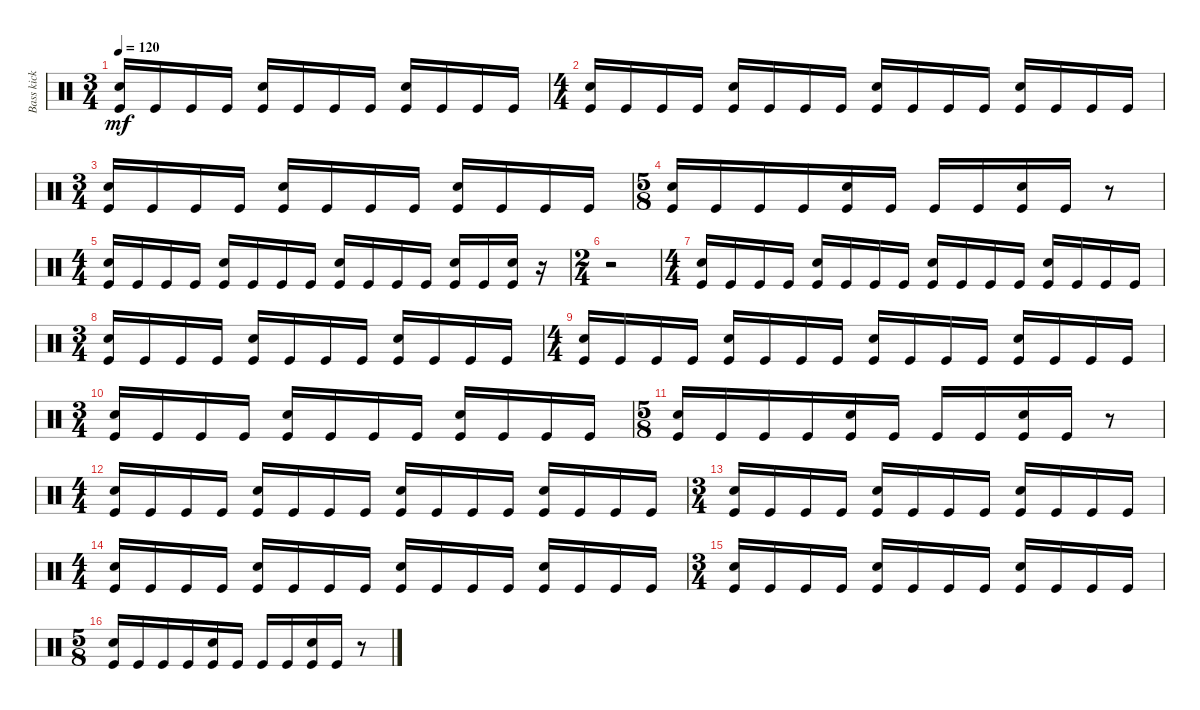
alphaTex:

\track ("Bass kick" "Bass kick") {instrument percussion}
\staff {score}
\articulation defaults
\ts (3 4)
\tempo 120
\clef neutral
\ks c
("Kick (hit)" "Snare (hit) 2").16{dy mf} "Kick (hit)".16 "Kick (hit)".16 "Kick (hit)".16 ("Kick (hit)" "Snare (hit) 2").16 "Kick (hit)".16 "Kick (hit)".16 "Kick (hit)".16 ("Kick (hit)" "Snare (hit) 2").16 "Kick (hit)".16 "Kick (hit)".16 "Kick (hit)".16 |
\ts (4 4)
("Kick (hit)" "Snare (hit) 2").16 "Kick (hit)".16 "Kick (hit)".16 "Kick (hit)".16 ("Kick (hit)" "Snare (hit) 2").16 "Kick (hit)".16 "Kick (hit)".16 "Kick (hit)".16 ("Kick (hit)" "Snare (hit) 2").16 "Kick (hit)".16 "Kick (hit)".16 "Kick (hit)".16 ("Kick (hit)" "Snare (hit) 2").16 "Kick (hit)".16 "Kick (hit)".16 "Kick (hit)".16 |
\ts (3 4)
("Kick (hit)" "Snare (hit) 2").16 "Kick (hit)".16 "Kick (hit)".16 "Kick (hit)".16 ("Kick (hit)" "Snare (hit) 2").16 "Kick (hit)".16 "Kick (hit)".16 "Kick (hit)".16 ("Kick (hit)" "Snare (hit) 2").16 "Kick (hit)".16 "Kick (hit)".16 "Kick (hit)".16 |
\ts (5 8)
("Kick (hit)" "Snare (hit) 2").16 "Kick (hit)".16 "Kick (hit)".16 "Kick (hit)".16 ("Kick (hit)" "Snare (hit) 2").16 "Kick (hit)".16 "Kick (hit)".16 "Kick (hit)".16 ("Kick (hit)" "Snare (hit) 2").16 "Kick (hit)".16 r.8 |
\ts (4 4)
("Kick (hit)" "Snare (hit) 2").16 "Kick (hit)".16 "Kick (hit)".16 "Kick (hit)".16 ("Kick (hit)" "Snare (hit) 2").16 "Kick (hit)".16 "Kick (hit)".16 "Kick (hit)".16 ("Kick (hit)" "Snare (hit) 2").16 "Kick (hit)".16 "Kick (hit)".16 "Kick (hit)".16 ("Kick (hit)" "Snare (hit) 2").16 "Kick (hit)".16 ("Kick (hit)" "Snare (hit) 2").16 r.16 |
\ts (2 4)
r.2 |
\ts (4 4)
("Kick (hit)" "Snare (hit) 2").16 "Kick (hit)".16 "Kick (hit)".16 "Kick (hit)".16 ("Kick (hit)" "Snare (hit) 2").16 "Kick (hit)".16 "Kick (hit)".16 "Kick (hit)".16 ("Kick (hit)" "Snare (hit) 2").16 "Kick (hit)".16 "Kick (hit)".16 "Kick (hit)".16 ("Kick (hit)" "Snare (hit) 2").16 "Kick (hit)".16 "Kick (hit)".16 "Kick (hit)".16 |
\ts (3 4)
("Kick (hit)" "Snare (hit) 2").16 "Kick (hit)".16 "Kick (hit)".16 "Kick (hit)".16 ("Kick (hit)" "Snare (hit) 2").16 "Kick (hit)".16 "Kick (hit)".16 "Kick (hit)".16 ("Kick (hit)" "Snare (hit) 2").16 "Kick (hit)".16 "Kick (hit)".16 "Kick (hit)".16 |
\ts (4 4)
("Kick (hit)" "Snare (hit) 2").16 "Kick (hit)".16 "Kick (hit)".16 "Kick (hit)".16 ("Kick (hit)" "Snare (hit) 2").16 "Kick (hit)".16 "Kick (hit)".16 "Kick (hit)".16 ("Kick (hit)" "Snare (hit) 2").16 "Kick (hit)".16 "Kick (hit)".16 "Kick (hit)".16 ("Kick (hit)" "Snare (hit) 2").16 "Kick (hit)".16 "Kick (hit)".16 "Kick (hit)".16 |
\ts (3 4)
("Kick (hit)" "Snare (hit) 2").16 "Kick (hit)".16 "Kick (hit)".16 "Kick (hit)".16 ("Kick (hit)" "Snare (hit) 2").16 "Kick (hit)".16 "Kick (hit)".16 "Kick (hit)".16 ("Kick (hit)" "Snare (hit) 2").16 "Kick (hit)".16 "Kick (hit)".16 "Kick (hit)".16 |
\ts (5 8)
("Kick (hit)" "Snare (hit) 2").16 "Kick (hit)".16 "Kick (hit)".16 "Kick (hit)".16 ("Kick (hit)" "Snare (hit) 2").16 "Kick (hit)".16 "Kick (hit)".16 "Kick (hit)".16 ("Kick (hit)" "Snare (hit) 2").16 "Kick (hit)".16 r.8 |
\ts (4 4)
("Kick (hit)" "Snare (hit) 2").16 "Kick (hit)".16 "Kick (hit)".16 "Kick (hit)".16 ("Kick (hit)" "Snare (hit) 2").16 "Kick (hit)".16 "Kick (hit)".16 "Kick (hit)".16 ("Kick (hit)" "Snare (hit) 2").16 "Kick (hit)".16 "Kick (hit)".16 "Kick (hit)".16 ("Kick (hit)" "Snare (hit) 2").16 "Kick (hit)".16 "Kick (hit)".16 "Kick (hit)".16 |
\ts (3 4)
("Kick (hit)" "Snare (hit) 2").16 "Kick (hit)".16 "Kick (hit)".16 "Kick (hit)".16 ("Kick (hit)" "Snare (hit) 2").16 "Kick (hit)".16 "Kick (hit)".16 "Kick (hit)".16 ("Kick (hit)" "Snare (hit) 2").16 "Kick (hit)".16 "Kick (hit)".16 "Kick (hit)".16 |
\ts (4 4)
("Kick (hit)" "Snare (hit) 2").16 "Kick (hit)".16 "Kick (hit)".16 "Kick (hit)".16 ("Kick (hit)" "Snare (hit) 2").16 "Kick (hit)".16 "Kick (hit)".16 "Kick (hit)".16 ("Kick (hit)" "Snare (hit) 2").16 "Kick (hit)".16 "Kick (hit)".16 "Kick (hit)".16 ("Kick (hit)" "Snare (hit) 2").16 "Kick (hit)".16 "Kick (hit)".16 "Kick (hit)".16 |
\ts (3 4)
("Kick (hit)" "Snare (hit) 2").16 "Kick (hit)".16 "Kick (hit)".16 "Kick (hit)".16 ("Kick (hit)" "Snare (hit) 2").16 "Kick (hit)".16 "Kick (hit)".16 "Kick (hit)".16 ("Kick (hit)" "Snare (hit) 2").16 "Kick (hit)".16 "Kick (hit)".16 "Kick (hit)".16 |
\ts (5 8)
("Kick (hit)" "Snare (hit) 2").16 "Kick (hit)".16 "Kick (hit)".16 "Kick (hit)".16 ("Kick (hit)" "Snare (hit) 2").16 "Kick (hit)".16 "Kick (hit)".16 "Kick (hit)".16 ("Kick (hit)" "Snare (hit) 2").16 "Kick (hit)".16 r.8
